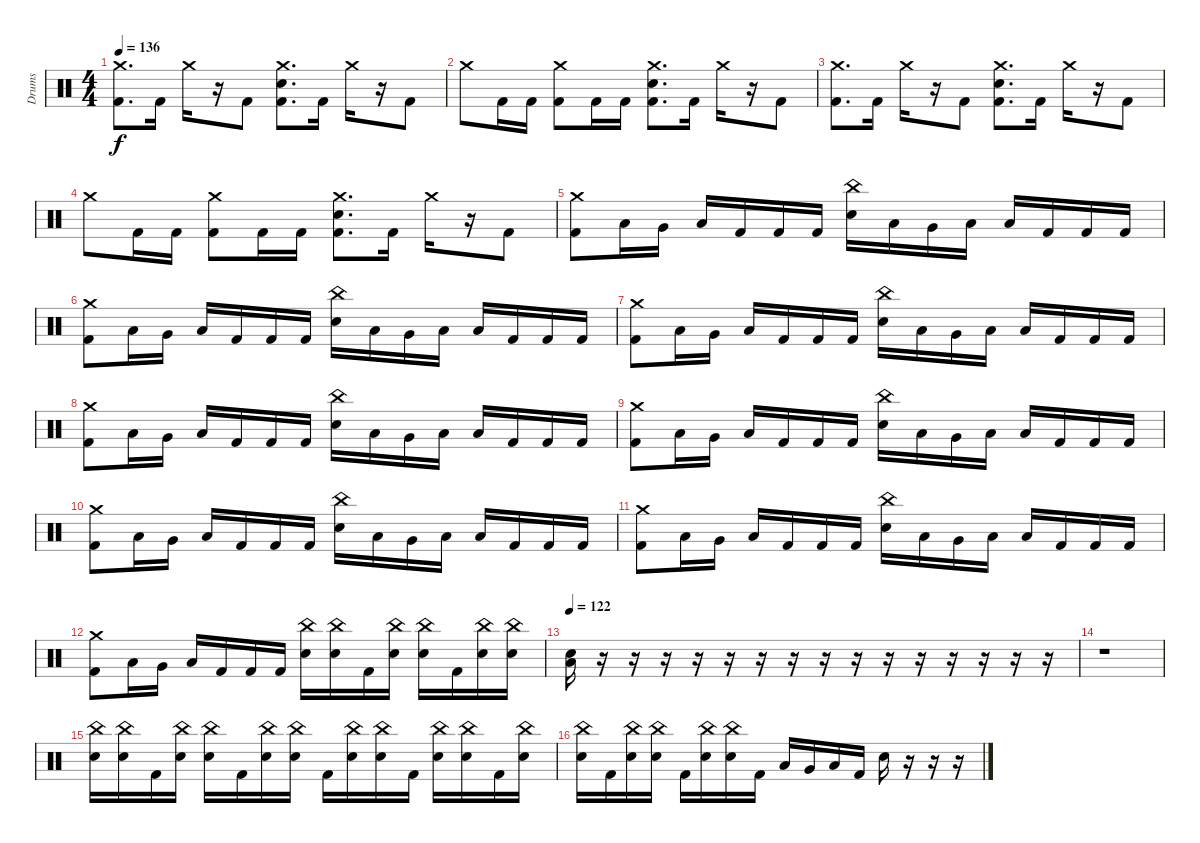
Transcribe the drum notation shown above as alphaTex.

\track ("Drums" "Drums") {instrument percussion}
\staff {score}
\articulation defaults
\ts (4 4)
\tempo 136
\clef neutral
\ks c
("Crash medium (hit)" "Kick (hit) 2").8{d dy f} "Kick (hit) 2".16 "Crash medium (hit)".16 r.16 "Kick (hit) 2".8 ("Crash medium (hit)" "Electric Snare (hit)" "Kick (hit) 2").8{d} "Kick (hit) 2".16 "Crash medium (hit)".16 r.16 "Kick (hit) 2".8 |
"Crash medium (hit)".8 "Kick (hit) 2".16 "Kick (hit) 2".16 ("Crash medium (hit)" "Kick (hit) 2").8 "Kick (hit) 2".16 "Kick (hit) 2".16 ("Crash medium (hit)" "Electric Snare (hit)" "Kick (hit) 2").8{d} "Kick (hit) 2".16 "Crash medium (hit)".16 r.16 "Kick (hit) 2".8 |
("Crash medium (hit)" "Kick (hit) 2").8{d} "Kick (hit) 2".16 "Crash medium (hit)".16 r.16 "Kick (hit) 2".8 ("Crash medium (hit)" "Electric Snare (hit)" "Kick (hit) 2").8{d} "Kick (hit) 2".16 "Crash medium (hit)".16 r.16 "Kick (hit) 2".8 |
"Crash medium (hit)".8 "Kick (hit) 2".16 "Kick (hit) 2".16 ("Crash medium (hit)" "Kick (hit) 2").8 "Kick (hit) 2".16 "Kick (hit) 2".16 ("Crash medium (hit)" "Electric Snare (hit)" "Kick (hit) 2").8{d} "Kick (hit) 2".16 "Crash medium (hit)".16 r.16 "Kick (hit) 2".8 |
("Crash medium (hit)" "Kick (hit) 2").8 "Low Tom (hit)".16 "Very Low Tom (hit)".16 "Low Floor Tom (hit)".16 "Kick (hit) 2".16 "Kick (hit) 2".16 "Kick (hit) 2".16 ("China (hit)" "Electric Snare (hit)").16 "Low Tom (hit)".16 "Very Low Tom (hit)".16 "Low Floor Tom (hit)".16 "Low Floor Tom (hit)".16 "Kick (hit) 2".16 "Kick (hit) 2".16 "Kick (hit) 2".16 |
("Crash medium (hit)" "Kick (hit) 2").8 "Low Tom (hit)".16 "Very Low Tom (hit)".16 "Low Floor Tom (hit)".16 "Kick (hit) 2".16 "Kick (hit) 2".16 "Kick (hit) 2".16 ("China (hit)" "Electric Snare (hit)").16 "Low Tom (hit)".16 "Very Low Tom (hit)".16 "Low Floor Tom (hit)".16 "Low Floor Tom (hit)".16 "Kick (hit) 2".16 "Kick (hit) 2".16 "Kick (hit) 2".16 |
("Crash medium (hit)" "Kick (hit) 2").8 "Low Tom (hit)".16 "Very Low Tom (hit)".16 "Low Floor Tom (hit)".16 "Kick (hit) 2".16 "Kick (hit) 2".16 "Kick (hit) 2".16 ("China (hit)" "Electric Snare (hit)").16 "Low Tom (hit)".16 "Very Low Tom (hit)".16 "Low Floor Tom (hit)".16 "Low Floor Tom (hit)".16 "Kick (hit) 2".16 "Kick (hit) 2".16 "Kick (hit) 2".16 |
("Crash medium (hit)" "Kick (hit) 2").8 "Low Tom (hit)".16 "Very Low Tom (hit)".16 "Low Floor Tom (hit)".16 "Kick (hit) 2".16 "Kick (hit) 2".16 "Kick (hit) 2".16 ("China (hit)" "Electric Snare (hit)").16 "Low Tom (hit)".16 "Very Low Tom (hit)".16 "Low Floor Tom (hit)".16 "Low Floor Tom (hit)".16 "Kick (hit) 2".16 "Kick (hit) 2".16 "Kick (hit) 2".16 |
("Crash medium (hit)" "Kick (hit) 2").8 "Low Tom (hit)".16 "Very Low Tom (hit)".16 "Low Floor Tom (hit)".16 "Kick (hit) 2".16 "Kick (hit) 2".16 "Kick (hit) 2".16 ("China (hit)" "Electric Snare (hit)").16 "Low Tom (hit)".16 "Very Low Tom (hit)".16 "Low Floor Tom (hit)".16 "Low Floor Tom (hit)".16 "Kick (hit) 2".16 "Kick (hit) 2".16 "Kick (hit) 2".16 |
("Crash medium (hit)" "Kick (hit) 2").8 "Low Tom (hit)".16 "Very Low Tom (hit)".16 "Low Floor Tom (hit)".16 "Kick (hit) 2".16 "Kick (hit) 2".16 "Kick (hit) 2".16 ("China (hit)" "Electric Snare (hit)").16 "Low Tom (hit)".16 "Very Low Tom (hit)".16 "Low Floor Tom (hit)".16 "Low Floor Tom (hit)".16 "Kick (hit) 2".16 "Kick (hit) 2".16 "Kick (hit) 2".16 |
("Crash medium (hit)" "Kick (hit) 2").8 "Low Tom (hit)".16 "Very Low Tom (hit)".16 "Low Floor Tom (hit)".16 "Kick (hit) 2".16 "Kick (hit) 2".16 "Kick (hit) 2".16 ("China (hit)" "Electric Snare (hit)").16 "Low Tom (hit)".16 "Very Low Tom (hit)".16 "Low Floor Tom (hit)".16 "Low Floor Tom (hit)".16 "Kick (hit) 2".16 "Kick (hit) 2".16 "Kick (hit) 2".16 |
("Crash medium (hit)" "Kick (hit) 2").8 "Low Tom (hit)".16 "Very Low Tom (hit)".16 "Low Floor Tom (hit)".16 "Kick (hit) 2".16 "Kick (hit) 2".16 "Kick (hit) 2".16 ("China (hit)" "Electric Snare (hit)").16 ("China (hit)" "Electric Snare (hit)").16 "Kick (hit) 2".16 ("China (hit)" "Electric Snare (hit)").16 ("China (hit)" "Electric Snare (hit)").16 "Kick (hit) 2".16 ("China (hit)" "Electric Snare (hit)").16 ("China (hit)" "Electric Snare (hit)").16 |
\tempo 122
("Low Floor Tom (hit)" "Electric Snare (hit)").16 r.16 r.16 r.16 r.16 r.16 r.16 r.16 r.16 r.16 r.16 r.16 r.16 r.16 r.16 r.16 |
r.1 |
("China (hit)" "Electric Snare (hit)").16 ("China (hit)" "Electric Snare (hit)").16 "Kick (hit) 2".16 ("China (hit)" "Electric Snare (hit)").16 ("China (hit)" "Electric Snare (hit)").16 "Kick (hit) 2".16 ("China (hit)" "Electric Snare (hit)").16 ("China (hit)" "Electric Snare (hit)").16 "Kick (hit) 2".16 ("China (hit)" "Electric Snare (hit)").16 ("China (hit)" "Electric Snare (hit)").16 "Kick (hit) 2".16 ("China (hit)" "Electric Snare (hit)").16 ("China (hit)" "Electric Snare (hit)").16 "Kick (hit) 2".16 ("China (hit)" "Electric Snare (hit)").16 |
("China (hit)" "Electric Snare (hit)").16 "Kick (hit) 2".16 ("China (hit)" "Electric Snare (hit)").16 ("China (hit)" "Electric Snare (hit)").16 "Kick (hit) 2".16 ("China (hit)" "Electric Snare (hit)").16 ("China (hit)" "Electric Snare (hit)").16 "Kick (hit) 2".16 "Low Tom (hit)".16 "Very Low Tom (hit)".16 "Low Floor Tom (hit)".16 "Kick (hit) 2".16 "Electric Snare (hit)".16 r.16 r.16 r.16
